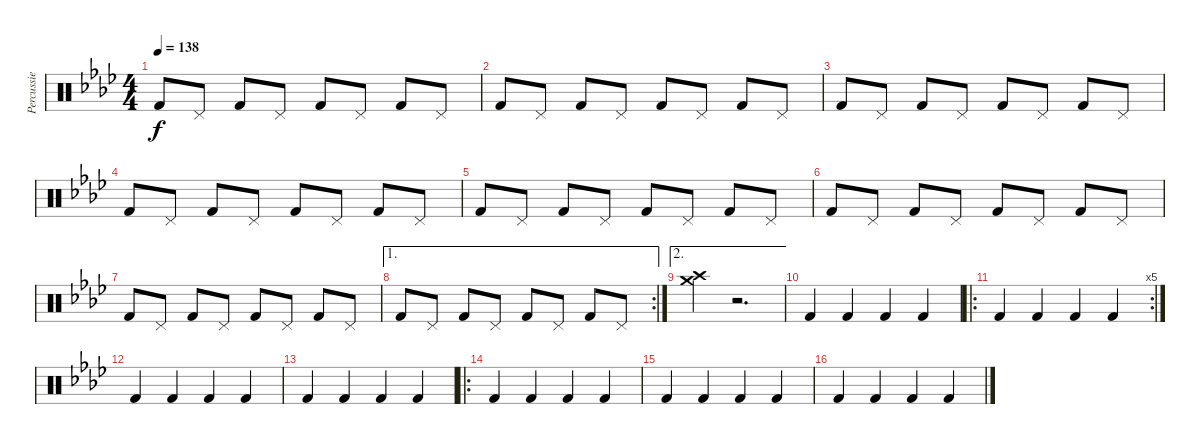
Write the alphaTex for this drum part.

\track ("Percussie" "Percussie") {instrument percussion}
\staff {score}
\articulation defaults
\ts (4 4)
\tempo 138
\clef neutral
\ks ab "Kick (hit) 2".8{dy f} "Pedal Hi-Hat (hit)".8 "Kick (hit) 2".8 "Pedal Hi-Hat (hit)".8 "Kick (hit) 2".8 "Pedal Hi-Hat (hit)".8 "Kick (hit) 2".8 "Pedal Hi-Hat (hit)".8
|
"Kick (hit) 2".8 "Pedal Hi-Hat (hit)".8 "Kick (hit) 2".8 "Pedal Hi-Hat (hit)".8 "Kick (hit) 2".8 "Pedal Hi-Hat (hit)".8 "Kick (hit) 2".8 "Pedal Hi-Hat (hit)".8 |
"Kick (hit) 2".8 "Pedal Hi-Hat (hit)".8 "Kick (hit) 2".8 "Pedal Hi-Hat (hit)".8 "Kick (hit) 2".8 "Pedal Hi-Hat (hit)".8 "Kick (hit) 2".8 "Pedal Hi-Hat (hit)".8 |
"Kick (hit) 2".8 "Pedal Hi-Hat (hit)".8 "Kick (hit) 2".8 "Pedal Hi-Hat (hit)".8 "Kick (hit) 2".8 "Pedal Hi-Hat (hit)".8 "Kick (hit) 2".8 "Pedal Hi-Hat (hit)".8 |
"Kick (hit) 2".8 "Pedal Hi-Hat (hit)".8 "Kick (hit) 2".8 "Pedal Hi-Hat (hit)".8 "Kick (hit) 2".8 "Pedal Hi-Hat (hit)".8 "Kick (hit) 2".8 "Pedal Hi-Hat (hit)".8 |
"Kick (hit) 2".8 "Pedal Hi-Hat (hit)".8 "Kick (hit) 2".8 "Pedal Hi-Hat (hit)".8 "Kick (hit) 2".8 "Pedal Hi-Hat (hit)".8 "Kick (hit) 2".8 "Pedal Hi-Hat (hit)".8 |
"Kick (hit) 2".8 "Pedal Hi-Hat (hit)".8 "Kick (hit) 2".8 "Pedal Hi-Hat (hit)".8 "Kick (hit) 2".8 "Pedal Hi-Hat (hit)".8 "Kick (hit) 2".8 "Pedal Hi-Hat (hit)".8 |
\ae 1
\rc 2 "Kick (hit) 2".8 "Pedal Hi-Hat (hit)".8 "Kick (hit) 2".8 "Pedal Hi-Hat (hit)".8 "Kick (hit) 2".8 "Pedal Hi-Hat (hit)".8 "Kick (hit) 2".8 "Pedal Hi-Hat (hit)".8
|
\ae 2
("Crash high (hit)" "Crash medium (hit)").4 r.2{d} |
"Kick (hit) 2".4 "Kick (hit) 2".4 "Kick (hit) 2".4 "Kick (hit) 2".4 |
\ro
\rc 5 "Kick (hit) 2".4 "Kick (hit) 2".4 "Kick (hit) 2".4 "Kick (hit) 2".4
|
"Kick (hit) 2".4 "Kick (hit) 2".4 "Kick (hit) 2".4 "Kick (hit) 2".4 |
"Kick (hit) 2".4 "Kick (hit) 2".4 "Kick (hit) 2".4 "Kick (hit) 2".4 |
\ro "Kick (hit) 2".4 "Kick (hit) 2".4 "Kick (hit) 2".4 "Kick (hit) 2".4
|
"Kick (hit) 2".4 "Kick (hit) 2".4 "Kick (hit) 2".4 "Kick (hit) 2".4 |
"Kick (hit) 2".4 "Kick (hit) 2".4 "Kick (hit) 2".4 "Kick (hit) 2".4
